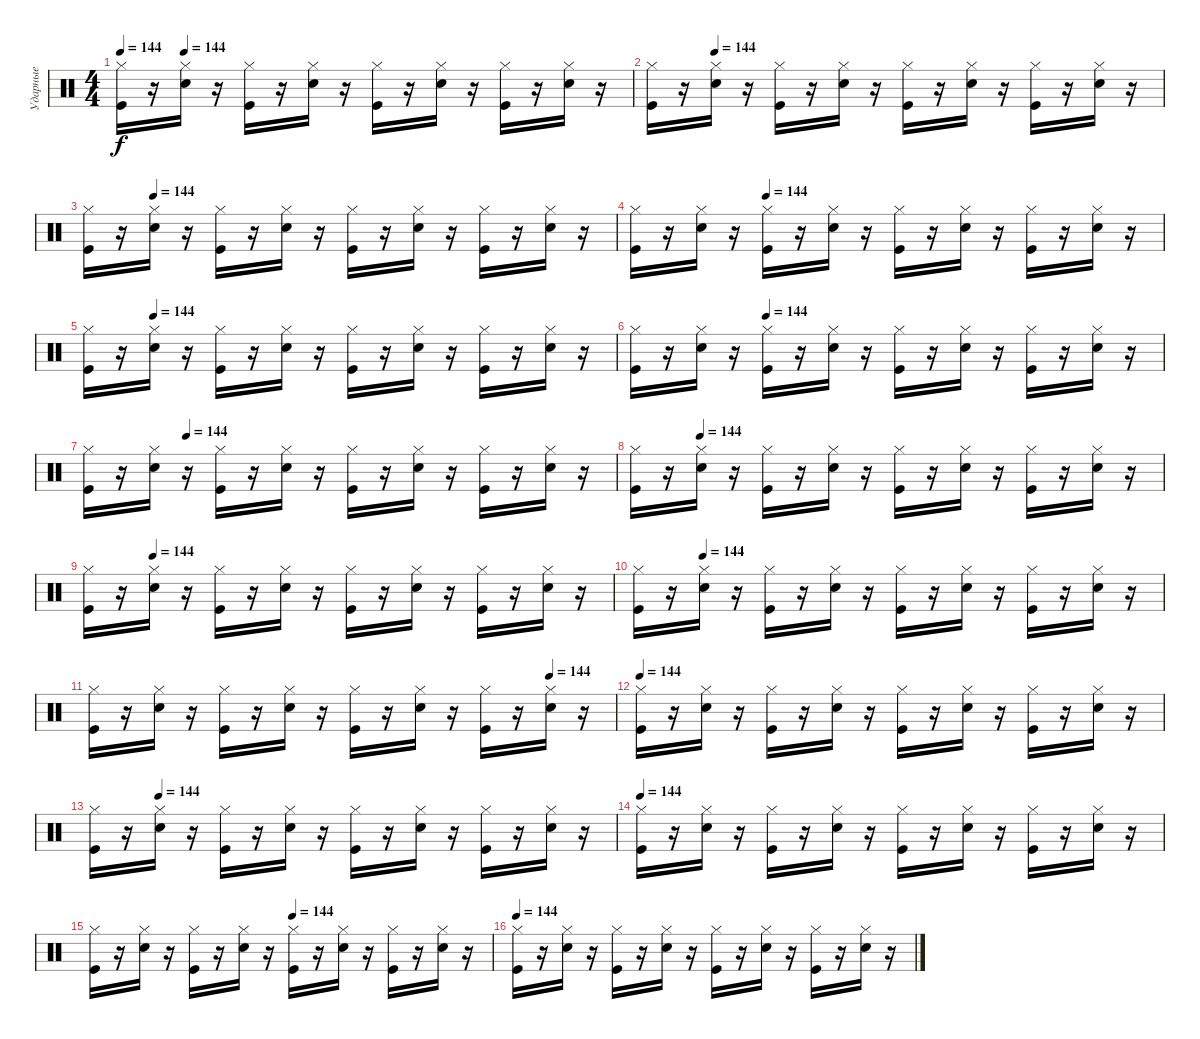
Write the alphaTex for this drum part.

\track ("Ударные" "Ударные") {instrument percussion}
\staff {score}
\articulation defaults
\ts (4 4)
\tempo 144
\tempo (144 0.125)
\clef neutral
\ks c
("Kick (hit)" "Hi-Hat (closed)").16{dy f} r.16 ("Hi-Hat (closed)" "Snare (hit) 2").16 r.16 ("Kick (hit)" "Hi-Hat (closed)").16 r.16 ("Hi-Hat (closed)" "Snare (hit) 2").16 r.16 ("Kick (hit)" "Hi-Hat (closed)").16 r.16 ("Hi-Hat (closed)" "Snare (hit) 2").16 r.16 ("Kick (hit)" "Hi-Hat (closed)").16 r.16 ("Hi-Hat (closed)" "Snare (hit) 2").16 r.16 |
\tempo (144 0.125)
("Kick (hit)" "Hi-Hat (closed)").16 r.16 ("Hi-Hat (closed)" "Snare (hit) 2").16 r.16 ("Kick (hit)" "Hi-Hat (closed)").16 r.16 ("Hi-Hat (closed)" "Snare (hit) 2").16 r.16 ("Kick (hit)" "Hi-Hat (closed)").16 r.16 ("Hi-Hat (closed)" "Snare (hit) 2").16 r.16 ("Kick (hit)" "Hi-Hat (closed)").16 r.16 ("Hi-Hat (closed)" "Snare (hit) 2").16 r.16 |
\tempo (144 0.125)
("Kick (hit)" "Hi-Hat (closed)").16 r.16 ("Hi-Hat (closed)" "Snare (hit) 2").16 r.16 ("Kick (hit)" "Hi-Hat (closed)").16 r.16 ("Hi-Hat (closed)" "Snare (hit) 2").16 r.16 ("Kick (hit)" "Hi-Hat (closed)").16 r.16 ("Hi-Hat (closed)" "Snare (hit) 2").16 r.16 ("Kick (hit)" "Hi-Hat (closed)").16 r.16 ("Hi-Hat (closed)" "Snare (hit) 2").16 r.16 |
\tempo (144 0.25)
("Kick (hit)" "Hi-Hat (closed)").16 r.16 ("Hi-Hat (closed)" "Snare (hit) 2").16 r.16 ("Kick (hit)" "Hi-Hat (closed)").16 r.16 ("Hi-Hat (closed)" "Snare (hit) 2").16 r.16 ("Kick (hit)" "Hi-Hat (closed)").16 r.16 ("Hi-Hat (closed)" "Snare (hit) 2").16 r.16 ("Kick (hit)" "Hi-Hat (closed)").16 r.16 ("Hi-Hat (closed)" "Snare (hit) 2").16 r.16 |
\tempo (144 0.125)
("Kick (hit)" "Hi-Hat (closed)").16 r.16 ("Hi-Hat (closed)" "Snare (hit) 2").16 r.16 ("Kick (hit)" "Hi-Hat (closed)").16 r.16 ("Hi-Hat (closed)" "Snare (hit) 2").16 r.16 ("Kick (hit)" "Hi-Hat (closed)").16 r.16 ("Hi-Hat (closed)" "Snare (hit) 2").16 r.16 ("Kick (hit)" "Hi-Hat (closed)").16 r.16 ("Hi-Hat (closed)" "Snare (hit) 2").16 r.16 |
\tempo (144 0.25)
("Kick (hit)" "Hi-Hat (closed)").16 r.16 ("Hi-Hat (closed)" "Snare (hit) 2").16 r.16 ("Kick (hit)" "Hi-Hat (closed)").16 r.16 ("Hi-Hat (closed)" "Snare (hit) 2").16 r.16 ("Kick (hit)" "Hi-Hat (closed)").16 r.16 ("Hi-Hat (closed)" "Snare (hit) 2").16 r.16 ("Kick (hit)" "Hi-Hat (closed)").16 r.16 ("Hi-Hat (closed)" "Snare (hit) 2").16 r.16 |
\tempo (144 0.1875)
("Kick (hit)" "Hi-Hat (closed)").16 r.16 ("Hi-Hat (closed)" "Snare (hit) 2").16 r.16 ("Kick (hit)" "Hi-Hat (closed)").16 r.16 ("Hi-Hat (closed)" "Snare (hit) 2").16 r.16 ("Kick (hit)" "Hi-Hat (closed)").16 r.16 ("Hi-Hat (closed)" "Snare (hit) 2").16 r.16 ("Kick (hit)" "Hi-Hat (closed)").16 r.16 ("Hi-Hat (closed)" "Snare (hit) 2").16 r.16 |
\tempo (144 0.125)
("Kick (hit)" "Hi-Hat (closed)").16 r.16 ("Hi-Hat (closed)" "Snare (hit) 2").16 r.16 ("Kick (hit)" "Hi-Hat (closed)").16 r.16 ("Hi-Hat (closed)" "Snare (hit) 2").16 r.16 ("Kick (hit)" "Hi-Hat (closed)").16 r.16 ("Hi-Hat (closed)" "Snare (hit) 2").16 r.16 ("Kick (hit)" "Hi-Hat (closed)").16 r.16 ("Hi-Hat (closed)" "Snare (hit) 2").16 r.16 |
\tempo (144 0.125)
("Kick (hit)" "Hi-Hat (closed)").16 r.16 ("Hi-Hat (closed)" "Snare (hit) 2").16 r.16 ("Kick (hit)" "Hi-Hat (closed)").16 r.16 ("Hi-Hat (closed)" "Snare (hit) 2").16 r.16 ("Kick (hit)" "Hi-Hat (closed)").16 r.16 ("Hi-Hat (closed)" "Snare (hit) 2").16 r.16 ("Kick (hit)" "Hi-Hat (closed)").16 r.16 ("Hi-Hat (closed)" "Snare (hit) 2").16 r.16 |
\tempo (144 0.125)
("Kick (hit)" "Hi-Hat (closed)").16 r.16 ("Hi-Hat (closed)" "Snare (hit) 2").16 r.16 ("Kick (hit)" "Hi-Hat (closed)").16 r.16 ("Hi-Hat (closed)" "Snare (hit) 2").16 r.16 ("Kick (hit)" "Hi-Hat (closed)").16 r.16 ("Hi-Hat (closed)" "Snare (hit) 2").16 r.16 ("Kick (hit)" "Hi-Hat (closed)").16 r.16 ("Hi-Hat (closed)" "Snare (hit) 2").16 r.16 |
\tempo (144 0.875)
("Kick (hit)" "Hi-Hat (closed)").16 r.16 ("Hi-Hat (closed)" "Snare (hit) 2").16 r.16 ("Kick (hit)" "Hi-Hat (closed)").16 r.16 ("Hi-Hat (closed)" "Snare (hit) 2").16 r.16 ("Kick (hit)" "Hi-Hat (closed)").16 r.16 ("Hi-Hat (closed)" "Snare (hit) 2").16 r.16 ("Kick (hit)" "Hi-Hat (closed)").16 r.16 ("Hi-Hat (closed)" "Snare (hit) 2").16 r.16 |
\tempo 144
("Kick (hit)" "Hi-Hat (closed)").16 r.16 ("Hi-Hat (closed)" "Snare (hit) 2").16 r.16 ("Kick (hit)" "Hi-Hat (closed)").16 r.16 ("Hi-Hat (closed)" "Snare (hit) 2").16 r.16 ("Kick (hit)" "Hi-Hat (closed)").16 r.16 ("Hi-Hat (closed)" "Snare (hit) 2").16 r.16 ("Kick (hit)" "Hi-Hat (closed)").16 r.16 ("Hi-Hat (closed)" "Snare (hit) 2").16 r.16 |
\tempo (144 0.125)
("Kick (hit)" "Hi-Hat (closed)").16 r.16 ("Hi-Hat (closed)" "Snare (hit) 2").16 r.16 ("Kick (hit)" "Hi-Hat (closed)").16 r.16 ("Hi-Hat (closed)" "Snare (hit) 2").16 r.16 ("Kick (hit)" "Hi-Hat (closed)").16 r.16 ("Hi-Hat (closed)" "Snare (hit) 2").16 r.16 ("Kick (hit)" "Hi-Hat (closed)").16 r.16 ("Hi-Hat (closed)" "Snare (hit) 2").16 r.16 |
\tempo 144
("Kick (hit)" "Hi-Hat (closed)").16 r.16 ("Hi-Hat (closed)" "Snare (hit) 2").16 r.16 ("Kick (hit)" "Hi-Hat (closed)").16 r.16 ("Hi-Hat (closed)" "Snare (hit) 2").16 r.16 ("Kick (hit)" "Hi-Hat (closed)").16 r.16 ("Hi-Hat (closed)" "Snare (hit) 2").16 r.16 ("Kick (hit)" "Hi-Hat (closed)").16 r.16 ("Hi-Hat (closed)" "Snare (hit) 2").16 r.16 |
\tempo (144 0.5)
("Kick (hit)" "Hi-Hat (closed)").16 r.16 ("Hi-Hat (closed)" "Snare (hit) 2").16 r.16 ("Kick (hit)" "Hi-Hat (closed)").16 r.16 ("Hi-Hat (closed)" "Snare (hit) 2").16 r.16 ("Kick (hit)" "Hi-Hat (closed)").16 r.16 ("Hi-Hat (closed)" "Snare (hit) 2").16 r.16 ("Kick (hit)" "Hi-Hat (closed)").16 r.16 ("Hi-Hat (closed)" "Snare (hit) 2").16 r.16 |
\tempo 144
("Kick (hit)" "Hi-Hat (closed)").16 r.16 ("Hi-Hat (closed)" "Snare (hit) 2").16 r.16 ("Kick (hit)" "Hi-Hat (closed)").16 r.16 ("Hi-Hat (closed)" "Snare (hit) 2").16 r.16 ("Kick (hit)" "Hi-Hat (closed)").16 r.16 ("Hi-Hat (closed)" "Snare (hit) 2").16 r.16 ("Kick (hit)" "Hi-Hat (closed)").16 r.16 ("Hi-Hat (closed)" "Snare (hit) 2").16 r.16
